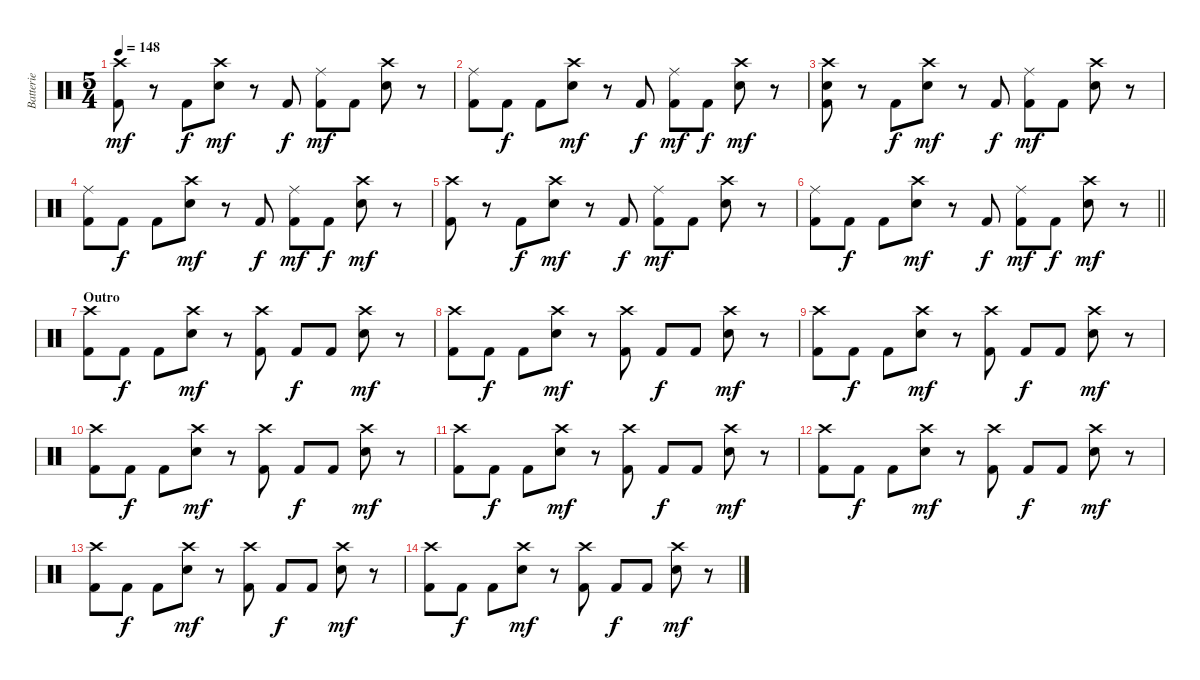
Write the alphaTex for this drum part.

\track ("Batterie" "Batterie") {instrument percussion}
\staff {score}
\articulation defaults
\ts (5 4)
\tempo 148
\clef neutral
\ks c
("Crash high (hit)" "Kick (hit) 2").8{dy mf} r.8 "Kick (hit) 2".8{dy f} ("Crash high (hit)" "Snare (hit) 2").8{dy mf} r.8 "Kick (hit) 2".8{dy f} ("Ride (middle)" "Kick (hit) 2").8{dy mf} "Kick (hit) 2".8 ("Crash high (hit)" "Snare (hit) 2").8 r.8 |
("Ride (middle)" "Kick (hit) 2").8 "Kick (hit) 2".8{dy f} "Kick (hit) 2".8 ("Crash high (hit)" "Snare (hit) 2").8{dy mf} r.8 "Kick (hit) 2".8{dy f} ("Ride (middle)" "Kick (hit) 2").8{dy mf} "Kick (hit) 2".8{dy f} ("Crash high (hit)" "Snare (hit) 2").8{dy mf} r.8 |
("Crash high (hit)" "Snare (hit) 2" "Kick (hit) 2").8 r.8 "Kick (hit) 2".8{dy f} ("Crash high (hit)" "Snare (hit) 2").8{dy mf} r.8 "Kick (hit) 2".8{dy f} ("Ride (middle)" "Kick (hit) 2").8{dy mf} "Kick (hit) 2".8 ("Crash high (hit)" "Snare (hit) 2").8 r.8 |
("Ride (middle)" "Kick (hit) 2").8 "Kick (hit) 2".8{dy f} "Kick (hit) 2".8 ("Crash high (hit)" "Snare (hit) 2").8{dy mf} r.8 "Kick (hit) 2".8{dy f} ("Ride (middle)" "Kick (hit) 2").8{dy mf} "Kick (hit) 2".8{dy f} ("Crash high (hit)" "Snare (hit) 2").8{dy mf} r.8 |
("Crash high (hit)" "Kick (hit) 2").8 r.8 "Kick (hit) 2".8{dy f} ("Crash high (hit)" "Snare (hit) 2").8{dy mf} r.8 "Kick (hit) 2".8{dy f} ("Ride (middle)" "Kick (hit) 2").8{dy mf} "Kick (hit) 2".8 ("Crash high (hit)" "Snare (hit) 2").8 r.8 |
\barLineRight lightlight
("Ride (middle)" "Kick (hit) 2").8 "Kick (hit) 2".8{dy f} "Kick (hit) 2".8 ("Crash high (hit)" "Snare (hit) 2").8{dy mf} r.8 "Kick (hit) 2".8{dy f} ("Ride (middle)" "Kick (hit) 2").8{dy mf} "Kick (hit) 2".8{dy f} ("Crash high (hit)" "Snare (hit) 2").8{dy mf} r.8 |
\section ("" "Outro")
("Crash high (hit)" "Kick (hit) 2").8 "Kick (hit) 2".8{dy f} "Kick (hit) 2".8 ("Crash high (hit)" "Snare (hit) 2").8{dy mf} r.8 ("Crash high (hit)" "Kick (hit) 2").8 "Kick (hit) 2".8{dy f} "Kick (hit) 2".8 ("Crash high (hit)" "Snare (hit) 2").8{dy mf} r.8 |
("Crash high (hit)" "Kick (hit) 2").8 "Kick (hit) 2".8{dy f} "Kick (hit) 2".8 ("Crash high (hit)" "Snare (hit) 2").8{dy mf} r.8 ("Crash high (hit)" "Kick (hit) 2").8 "Kick (hit) 2".8{dy f} "Kick (hit) 2".8 ("Crash high (hit)" "Snare (hit) 2").8{dy mf} r.8 |
("Crash high (hit)" "Kick (hit) 2").8 "Kick (hit) 2".8{dy f} "Kick (hit) 2".8 ("Crash high (hit)" "Snare (hit) 2").8{dy mf} r.8 ("Crash high (hit)" "Kick (hit) 2").8 "Kick (hit) 2".8{dy f} "Kick (hit) 2".8 ("Crash high (hit)" "Snare (hit) 2").8{dy mf} r.8 |
("Crash high (hit)" "Kick (hit) 2").8 "Kick (hit) 2".8{dy f} "Kick (hit) 2".8 ("Crash high (hit)" "Snare (hit) 2").8{dy mf} r.8 ("Crash high (hit)" "Kick (hit) 2").8 "Kick (hit) 2".8{dy f} "Kick (hit) 2".8 ("Crash high (hit)" "Snare (hit) 2").8{dy mf} r.8 |
("Crash high (hit)" "Kick (hit) 2").8 "Kick (hit) 2".8{dy f} "Kick (hit) 2".8 ("Crash high (hit)" "Snare (hit) 2").8{dy mf} r.8 ("Crash high (hit)" "Kick (hit) 2").8 "Kick (hit) 2".8{dy f} "Kick (hit) 2".8 ("Crash high (hit)" "Snare (hit) 2").8{dy mf} r.8 |
("Crash high (hit)" "Kick (hit) 2").8 "Kick (hit) 2".8{dy f} "Kick (hit) 2".8 ("Crash high (hit)" "Snare (hit) 2").8{dy mf} r.8 ("Crash high (hit)" "Kick (hit) 2").8 "Kick (hit) 2".8{dy f} "Kick (hit) 2".8 ("Crash high (hit)" "Snare (hit) 2").8{dy mf} r.8 |
("Crash high (hit)" "Kick (hit) 2").8 "Kick (hit) 2".8{dy f} "Kick (hit) 2".8 ("Crash high (hit)" "Snare (hit) 2").8{dy mf} r.8 ("Crash high (hit)" "Kick (hit) 2").8 "Kick (hit) 2".8{dy f} "Kick (hit) 2".8 ("Crash high (hit)" "Snare (hit) 2").8{dy mf} r.8 |
("Crash high (hit)" "Kick (hit) 2").8 "Kick (hit) 2".8{dy f} "Kick (hit) 2".8 ("Crash high (hit)" "Snare (hit) 2").8{dy mf} r.8 ("Crash high (hit)" "Kick (hit) 2").8 "Kick (hit) 2".8{dy f} "Kick (hit) 2".8 ("Crash high (hit)" "Snare (hit) 2").8{dy mf} r.8
